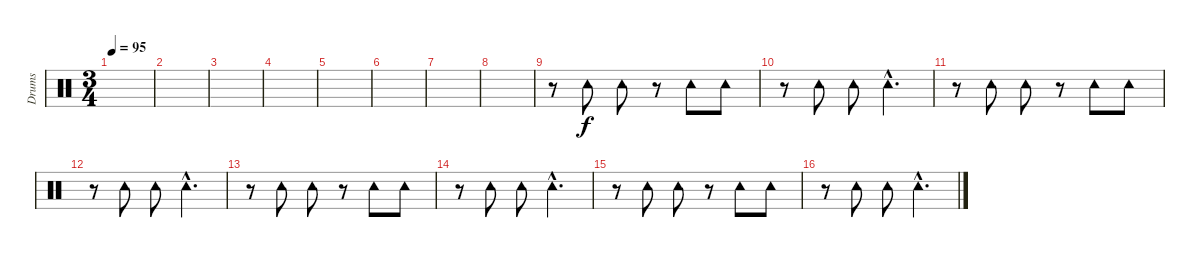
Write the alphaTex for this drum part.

\track ("Drums" "Drums") {instrument percussion}
\staff {score}
\articulation defaults
\ts (3 4)
\tempo 95
\clef neutral
\ks c
|
|
|
|
|
|
|
|
r.8 "Tambourine (hit)".8 "Tambourine (hit)".8 r.8 "Tambourine (hit)".8 "Tambourine (hit)".8 |
r.8 "Tambourine (hit)".8 "Tambourine (hit)".8 "Tambourine (hit)"{hac}.4{d} |
r.8 "Tambourine (hit)".8 "Tambourine (hit)".8 r.8 "Tambourine (hit)".8 "Tambourine (hit)".8 |
r.8 "Tambourine (hit)".8 "Tambourine (hit)".8 "Tambourine (hit)"{hac}.4{d} |
r.8 "Tambourine (hit)".8 "Tambourine (hit)".8 r.8 "Tambourine (hit)".8 "Tambourine (hit)".8 |
r.8 "Tambourine (hit)".8 "Tambourine (hit)".8 "Tambourine (hit)"{hac}.4{d} |
r.8 "Tambourine (hit)".8 "Tambourine (hit)".8 r.8 "Tambourine (hit)".8 "Tambourine (hit)".8 |
r.8 "Tambourine (hit)".8 "Tambourine (hit)".8 "Tambourine (hit)"{hac}.4{d}
